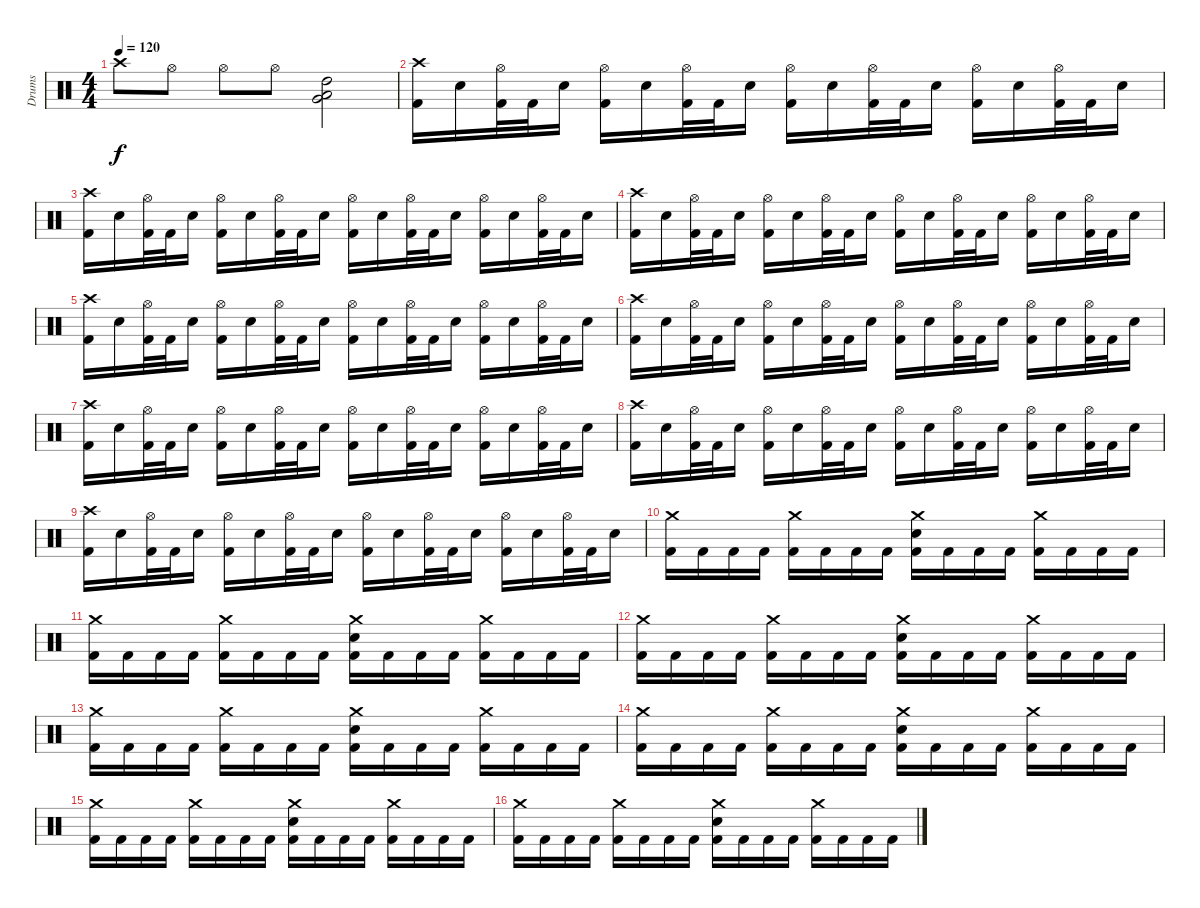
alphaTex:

\track ("Drums" "Drums") {instrument percussion}
\staff {score}
\articulation defaults
\ts (4 4)
\tempo 120
\clef neutral
\ks c "Crash high (hit)".8{dy f} "Hi-Hat (open)".8 "Hi-Hat (open)".8 "Hi-Hat (open)".8
("High Tom (hit)" "Low Tom (hit)" "Very Low Tom (hit)").2 |
("Crash high (hit)" "Kick (hit) 2").16 "Electric Snare (hit)".16 ("Hi-Hat (open)" "Kick (hit) 2").32 "Kick (hit) 2".32 "Electric Snare (hit)".16 ("Hi-Hat (open)" "Kick (hit) 2").16 "Electric Snare (hit)".16 ("Hi-Hat (open)" "Kick (hit) 2").32 "Kick (hit) 2".32 "Electric Snare (hit)".16 ("Hi-Hat (open)" "Kick (hit) 2").16 "Electric Snare (hit)".16 ("Hi-Hat (open)" "Kick (hit) 2").32 "Kick (hit) 2".32 "Electric Snare (hit)".16 ("Hi-Hat (open)" "Kick (hit) 2").16 "Electric Snare (hit)".16 ("Hi-Hat (open)" "Kick (hit) 2").32 "Kick (hit) 2".32 "Electric Snare (hit)".16 |
("Crash high (hit)" "Kick (hit) 2").16 "Electric Snare (hit)".16 ("Hi-Hat (open)" "Kick (hit) 2").32 "Kick (hit) 2".32 "Electric Snare (hit)".16 ("Hi-Hat (open)" "Kick (hit) 2").16 "Electric Snare (hit)".16 ("Hi-Hat (open)" "Kick (hit) 2").32 "Kick (hit) 2".32 "Electric Snare (hit)".16 ("Hi-Hat (open)" "Kick (hit) 2").16 "Electric Snare (hit)".16 ("Hi-Hat (open)" "Kick (hit) 2").32 "Kick (hit) 2".32 "Electric Snare (hit)".16 ("Hi-Hat (open)" "Kick (hit) 2").16 "Electric Snare (hit)".16 ("Hi-Hat (open)" "Kick (hit) 2").32 "Kick (hit) 2".32 "Electric Snare (hit)".16 |
("Crash high (hit)" "Kick (hit) 2").16 "Electric Snare (hit)".16 ("Hi-Hat (open)" "Kick (hit) 2").32 "Kick (hit) 2".32 "Electric Snare (hit)".16 ("Hi-Hat (open)" "Kick (hit) 2").16 "Electric Snare (hit)".16 ("Hi-Hat (open)" "Kick (hit) 2").32 "Kick (hit) 2".32 "Electric Snare (hit)".16 ("Hi-Hat (open)" "Kick (hit) 2").16 "Electric Snare (hit)".16 ("Hi-Hat (open)" "Kick (hit) 2").32 "Kick (hit) 2".32 "Electric Snare (hit)".16 ("Hi-Hat (open)" "Kick (hit) 2").16 "Electric Snare (hit)".16 ("Hi-Hat (open)" "Kick (hit) 2").32 "Kick (hit) 2".32 "Electric Snare (hit)".16 |
("Crash high (hit)" "Kick (hit) 2").16 "Electric Snare (hit)".16 ("Hi-Hat (open)" "Kick (hit) 2").32 "Kick (hit) 2".32 "Electric Snare (hit)".16 ("Hi-Hat (open)" "Kick (hit) 2").16 "Electric Snare (hit)".16 ("Hi-Hat (open)" "Kick (hit) 2").32 "Kick (hit) 2".32 "Electric Snare (hit)".16 ("Hi-Hat (open)" "Kick (hit) 2").16 "Electric Snare (hit)".16 ("Hi-Hat (open)" "Kick (hit) 2").32 "Kick (hit) 2".32 "Electric Snare (hit)".16 ("Hi-Hat (open)" "Kick (hit) 2").16 "Electric Snare (hit)".16 ("Hi-Hat (open)" "Kick (hit) 2").32 "Kick (hit) 2".32 "Electric Snare (hit)".16 |
("Crash high (hit)" "Kick (hit) 2").16 "Electric Snare (hit)".16 ("Hi-Hat (open)" "Kick (hit) 2").32 "Kick (hit) 2".32 "Electric Snare (hit)".16 ("Hi-Hat (open)" "Kick (hit) 2").16 "Electric Snare (hit)".16 ("Hi-Hat (open)" "Kick (hit) 2").32 "Kick (hit) 2".32 "Electric Snare (hit)".16 ("Hi-Hat (open)" "Kick (hit) 2").16 "Electric Snare (hit)".16 ("Hi-Hat (open)" "Kick (hit) 2").32 "Kick (hit) 2".32 "Electric Snare (hit)".16 ("Hi-Hat (open)" "Kick (hit) 2").16 "Electric Snare (hit)".16 ("Hi-Hat (open)" "Kick (hit) 2").32 "Kick (hit) 2".32 "Electric Snare (hit)".16 |
("Crash high (hit)" "Kick (hit) 2").16 "Electric Snare (hit)".16 ("Hi-Hat (open)" "Kick (hit) 2").32 "Kick (hit) 2".32 "Electric Snare (hit)".16 ("Hi-Hat (open)" "Kick (hit) 2").16 "Electric Snare (hit)".16 ("Hi-Hat (open)" "Kick (hit) 2").32 "Kick (hit) 2".32 "Electric Snare (hit)".16 ("Hi-Hat (open)" "Kick (hit) 2").16 "Electric Snare (hit)".16 ("Hi-Hat (open)" "Kick (hit) 2").32 "Kick (hit) 2".32 "Electric Snare (hit)".16 ("Hi-Hat (open)" "Kick (hit) 2").16 "Electric Snare (hit)".16 ("Hi-Hat (open)" "Kick (hit) 2").32 "Kick (hit) 2".32 "Electric Snare (hit)".16 |
("Crash high (hit)" "Kick (hit) 2").16 "Electric Snare (hit)".16 ("Hi-Hat (open)" "Kick (hit) 2").32 "Kick (hit) 2".32 "Electric Snare (hit)".16 ("Hi-Hat (open)" "Kick (hit) 2").16 "Electric Snare (hit)".16 ("Hi-Hat (open)" "Kick (hit) 2").32 "Kick (hit) 2".32 "Electric Snare (hit)".16 ("Hi-Hat (open)" "Kick (hit) 2").16 "Electric Snare (hit)".16 ("Hi-Hat (open)" "Kick (hit) 2").32 "Kick (hit) 2".32 "Electric Snare (hit)".16 ("Hi-Hat (open)" "Kick (hit) 2").16 "Electric Snare (hit)".16 ("Hi-Hat (open)" "Kick (hit) 2").32 "Kick (hit) 2".32 "Electric Snare (hit)".16 |
("Crash high (hit)" "Kick (hit) 2").16 "Electric Snare (hit)".16 ("Hi-Hat (open)" "Kick (hit) 2").32 "Kick (hit) 2".32 "Electric Snare (hit)".16 ("Hi-Hat (open)" "Kick (hit) 2").16 "Electric Snare (hit)".16 ("Hi-Hat (open)" "Kick (hit) 2").32 "Kick (hit) 2".32 "Electric Snare (hit)".16 ("Hi-Hat (open)" "Kick (hit) 2").16 "Electric Snare (hit)".16 ("Hi-Hat (open)" "Kick (hit) 2").32 "Kick (hit) 2".32 "Electric Snare (hit)".16 ("Hi-Hat (open)" "Kick (hit) 2").16 "Electric Snare (hit)".16 ("Hi-Hat (open)" "Kick (hit) 2").32 "Kick (hit) 2".32 "Electric Snare (hit)".16 |
("Crash medium (hit)" "Kick (hit) 2").16 "Kick (hit) 2".16 "Kick (hit) 2".16 "Kick (hit) 2".16 ("Crash medium (hit)" "Kick (hit) 2").16 "Kick (hit) 2".16 "Kick (hit) 2".16 "Kick (hit) 2".16 ("Crash medium (hit)" "Electric Snare (hit)" "Kick (hit) 2").16 "Kick (hit) 2".16 "Kick (hit) 2".16 "Kick (hit) 2".16 ("Crash medium (hit)" "Kick (hit) 2").16 "Kick (hit) 2".16 "Kick (hit) 2".16 "Kick (hit) 2".16 |
("Crash medium (hit)" "Kick (hit) 2").16 "Kick (hit) 2".16 "Kick (hit) 2".16 "Kick (hit) 2".16 ("Crash medium (hit)" "Kick (hit) 2").16 "Kick (hit) 2".16 "Kick (hit) 2".16 "Kick (hit) 2".16 ("Crash medium (hit)" "Electric Snare (hit)" "Kick (hit) 2").16 "Kick (hit) 2".16 "Kick (hit) 2".16 "Kick (hit) 2".16 ("Crash medium (hit)" "Kick (hit) 2").16 "Kick (hit) 2".16 "Kick (hit) 2".16 "Kick (hit) 2".16 |
("Crash medium (hit)" "Kick (hit) 2").16 "Kick (hit) 2".16 "Kick (hit) 2".16 "Kick (hit) 2".16 ("Crash medium (hit)" "Kick (hit) 2").16 "Kick (hit) 2".16 "Kick (hit) 2".16 "Kick (hit) 2".16 ("Crash medium (hit)" "Electric Snare (hit)" "Kick (hit) 2").16 "Kick (hit) 2".16 "Kick (hit) 2".16 "Kick (hit) 2".16 ("Crash medium (hit)" "Kick (hit) 2").16 "Kick (hit) 2".16 "Kick (hit) 2".16 "Kick (hit) 2".16 |
("Crash medium (hit)" "Kick (hit) 2").16 "Kick (hit) 2".16 "Kick (hit) 2".16 "Kick (hit) 2".16 ("Crash medium (hit)" "Kick (hit) 2").16 "Kick (hit) 2".16 "Kick (hit) 2".16 "Kick (hit) 2".16 ("Crash medium (hit)" "Electric Snare (hit)" "Kick (hit) 2").16 "Kick (hit) 2".16 "Kick (hit) 2".16 "Kick (hit) 2".16 ("Crash medium (hit)" "Kick (hit) 2").16 "Kick (hit) 2".16 "Kick (hit) 2".16 "Kick (hit) 2".16 |
("Crash medium (hit)" "Kick (hit) 2").16 "Kick (hit) 2".16 "Kick (hit) 2".16 "Kick (hit) 2".16 ("Crash medium (hit)" "Kick (hit) 2").16 "Kick (hit) 2".16 "Kick (hit) 2".16 "Kick (hit) 2".16 ("Crash medium (hit)" "Electric Snare (hit)" "Kick (hit) 2").16 "Kick (hit) 2".16 "Kick (hit) 2".16 "Kick (hit) 2".16 ("Crash medium (hit)" "Kick (hit) 2").16 "Kick (hit) 2".16 "Kick (hit) 2".16 "Kick (hit) 2".16 |
("Crash medium (hit)" "Kick (hit) 2").16 "Kick (hit) 2".16 "Kick (hit) 2".16 "Kick (hit) 2".16 ("Crash medium (hit)" "Kick (hit) 2").16 "Kick (hit) 2".16 "Kick (hit) 2".16 "Kick (hit) 2".16 ("Crash medium (hit)" "Electric Snare (hit)" "Kick (hit) 2").16 "Kick (hit) 2".16 "Kick (hit) 2".16 "Kick (hit) 2".16 ("Crash medium (hit)" "Kick (hit) 2").16 "Kick (hit) 2".16 "Kick (hit) 2".16 "Kick (hit) 2".16 |
("Crash medium (hit)" "Kick (hit) 2").16 "Kick (hit) 2".16 "Kick (hit) 2".16 "Kick (hit) 2".16 ("Crash medium (hit)" "Kick (hit) 2").16 "Kick (hit) 2".16 "Kick (hit) 2".16 "Kick (hit) 2".16 ("Crash medium (hit)" "Electric Snare (hit)" "Kick (hit) 2").16 "Kick (hit) 2".16 "Kick (hit) 2".16 "Kick (hit) 2".16 ("Crash medium (hit)" "Kick (hit) 2").16 "Kick (hit) 2".16 "Kick (hit) 2".16 "Kick (hit) 2".16
